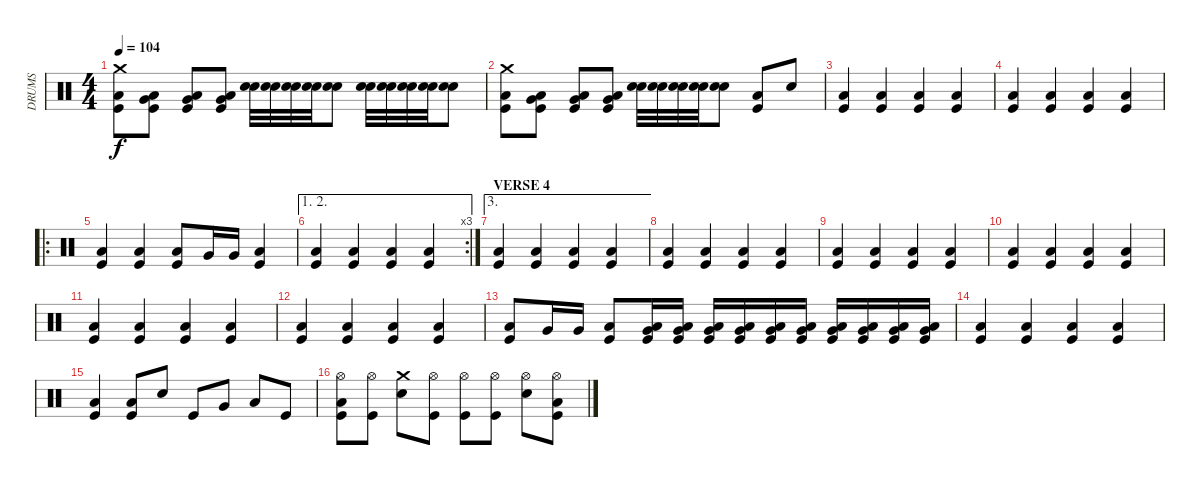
\track ("DRUMS" "DRUMS") {instrument percussion}
\staff {score}
\articulation defaults
\ts (4 4)
\tempo 104
\clef neutral
\ks c
("Kick (hit)" "Low Floor Tom (hit)" "Crash medium (hit)").8{dy f} ("Kick (hit)" "Low Floor Tom (hit)" "Very Low Tom (hit)").8 ("Kick (hit)" "Low Floor Tom (hit)" "Very Low Tom (hit)").8 ("Kick (hit)" "Low Floor Tom (hit)" "Very Low Tom (hit)").8 ("Electric Snare (hit)" "Snare (hit) 2").32 ("Electric Snare (hit)" "Snare (hit) 2").32 ("Electric Snare (hit)" "Snare (hit) 2").32 ("Electric Snare (hit)" "Snare (hit) 2").32 ("Electric Snare (hit)" "Snare (hit) 2").8 ("Electric Snare (hit)" "Snare (hit) 2").32 ("Electric Snare (hit)" "Snare (hit) 2").32 ("Electric Snare (hit)" "Snare (hit) 2").32 ("Electric Snare (hit)" "Snare (hit) 2").32 ("Electric Snare (hit)" "Snare (hit) 2").8 |
("Kick (hit)" "Low Floor Tom (hit)" "Crash medium (hit)").8 ("Kick (hit)" "Low Floor Tom (hit)" "Very Low Tom (hit)").8 ("Kick (hit)" "Low Floor Tom (hit)" "Very Low Tom (hit)").8 ("Kick (hit)" "Low Floor Tom (hit)" "Very Low Tom (hit)").8 ("Electric Snare (hit)" "Snare (hit) 2").32 ("Electric Snare (hit)" "Snare (hit) 2").32 ("Electric Snare (hit)" "Snare (hit) 2").32 ("Electric Snare (hit)" "Snare (hit) 2").32 ("Electric Snare (hit)" "Snare (hit) 2").8 ("Kick (hit)" "Low Floor Tom (hit)").8 "Snare (hit) 2".8 |
("Kick (hit)" "Low Floor Tom (hit)").4 ("Kick (hit)" "Low Floor Tom (hit)").4 ("Kick (hit)" "Low Floor Tom (hit)").4 ("Kick (hit)" "Low Floor Tom (hit)").4 |
("Kick (hit)" "Low Floor Tom (hit)").4 ("Kick (hit)" "Low Floor Tom (hit)").4 ("Kick (hit)" "Low Floor Tom (hit)").4 ("Kick (hit)" "Low Floor Tom (hit)").4 |
\ro
("Kick (hit)" "Low Floor Tom (hit)").4 ("Kick (hit)" "Low Floor Tom (hit)").4 ("Kick (hit)" "Low Floor Tom (hit)").8 "Very Low Tom (hit)".16 "Very Low Tom (hit)".16 ("Kick (hit)" "Low Floor Tom (hit)").4 |
\ae (1 2)
\rc 3
("Kick (hit)" "Low Floor Tom (hit)").4 ("Kick (hit)" "Low Floor Tom (hit)").4 ("Kick (hit)" "Low Floor Tom (hit)").4 ("Kick (hit)" "Low Floor Tom (hit)").4 |
\ae 3
\section ("" "VERSE 4")
("Kick (hit)" "Low Floor Tom (hit)").4 ("Kick (hit)" "Low Floor Tom (hit)").4 ("Kick (hit)" "Low Floor Tom (hit)").4 ("Kick (hit)" "Low Floor Tom (hit)").4 |
("Kick (hit)" "Low Floor Tom (hit)").4 ("Kick (hit)" "Low Floor Tom (hit)").4 ("Kick (hit)" "Low Floor Tom (hit)").4 ("Kick (hit)" "Low Floor Tom (hit)").4 |
("Kick (hit)" "Low Floor Tom (hit)").4 ("Kick (hit)" "Low Floor Tom (hit)").4 ("Kick (hit)" "Low Floor Tom (hit)").4 ("Kick (hit)" "Low Floor Tom (hit)").4 |
("Kick (hit)" "Low Floor Tom (hit)").4 ("Kick (hit)" "Low Floor Tom (hit)").4 ("Kick (hit)" "Low Floor Tom (hit)").4 ("Kick (hit)" "Low Floor Tom (hit)").4 |
\section ("" "")
("Kick (hit)" "Low Floor Tom (hit)").4 ("Kick (hit)" "Low Floor Tom (hit)").4 ("Kick (hit)" "Low Floor Tom (hit)").4 ("Kick (hit)" "Low Floor Tom (hit)").4 |
("Kick (hit)" "Low Floor Tom (hit)").4 ("Kick (hit)" "Low Floor Tom (hit)").4 ("Kick (hit)" "Low Floor Tom (hit)").4 ("Kick (hit)" "Low Floor Tom (hit)").4 |
("Kick (hit)" "Low Floor Tom (hit)").8 "Very Low Tom (hit)".16 "Very Low Tom (hit)".16 ("Kick (hit)" "Low Floor Tom (hit)").8 ("Low Floor Tom (hit)" "Very Low Tom (hit)" "Kick (hit)").16 ("Low Floor Tom (hit)" "Very Low Tom (hit)" "Kick (hit)").16 ("Low Floor Tom (hit)" "Very Low Tom (hit)" "Kick (hit)").16 ("Low Floor Tom (hit)" "Very Low Tom (hit)" "Kick (hit)").16 ("Low Floor Tom (hit)" "Very Low Tom (hit)" "Kick (hit)").16 ("Low Floor Tom (hit)" "Very Low Tom (hit)" "Kick (hit)").16 ("Low Floor Tom (hit)" "Very Low Tom (hit)" "Kick (hit)").16 ("Low Floor Tom (hit)" "Very Low Tom (hit)" "Kick (hit)").16 ("Low Floor Tom (hit)" "Very Low Tom (hit)" "Kick (hit)").16 ("Low Floor Tom (hit)" "Very Low Tom (hit)" "Kick (hit)").16 |
("Kick (hit)" "Low Floor Tom (hit)").4 ("Kick (hit)" "Low Floor Tom (hit)").4 ("Kick (hit)" "Low Floor Tom (hit)").4 ("Kick (hit)" "Low Floor Tom (hit)").4 |
("Kick (hit)" "Low Floor Tom (hit)").4 ("Kick (hit)" "Low Floor Tom (hit)").8 "Snare (hit) 2".8 "Kick (hit)".8 "Very Low Tom (hit)".8 "Low Floor Tom (hit)".8 "Kick (hit)".8 |
("Kick (hit)" "Hi-Hat (open)" "Low Floor Tom (hit)").8 ("Kick (hit)" "Hi-Hat (open)").8 ("Snare (hit) 2" "Crash medium (hit)").8 ("Kick (hit)" "Hi-Hat (open)").8 ("Kick (hit)" "Hi-Hat (open)").8 ("Kick (hit)" "Hi-Hat (open)").8 ("Snare (hit) 2" "Hi-Hat (open)").8 ("Kick (hit)" "Hi-Hat (open)" "Low Floor Tom (hit)").8
